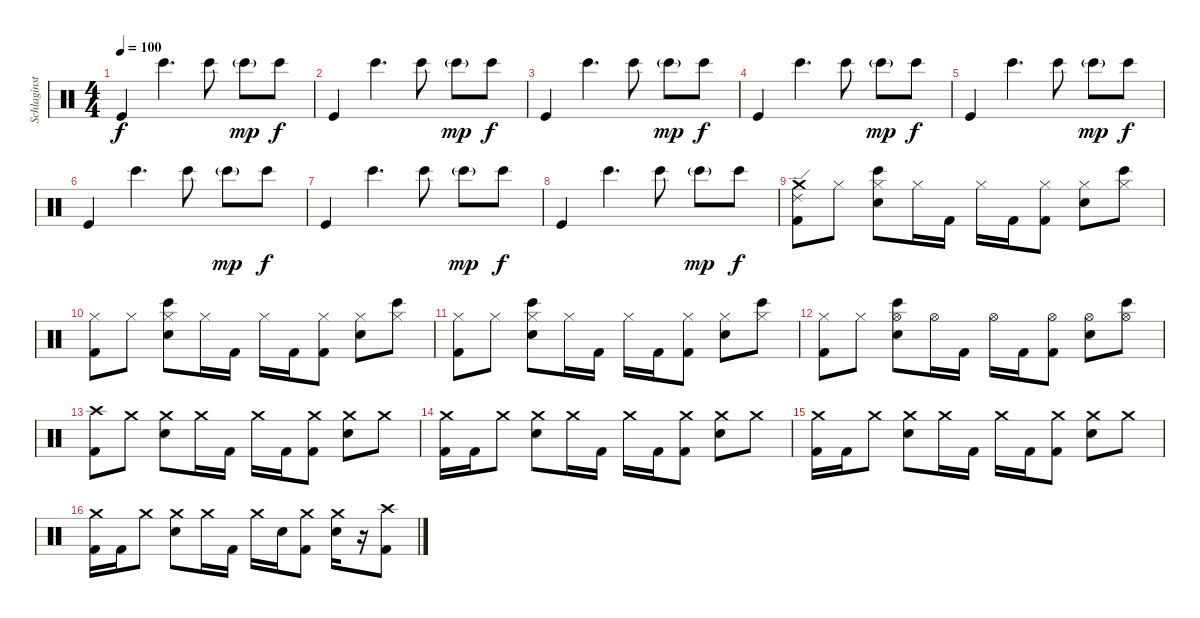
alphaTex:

\track ("Schlaginstrumente - Auswahl" "Schlaginst") {instrument percussion}
\staff {score}
\articulation defaults
\ts (4 4)
\tempo 100
\clef neutral
\ks c "Kick (hit)".4{dy f} "Bongo High (hit)".4{d} "Bongo High (hit)".8 "Bongo High (hit)"{g}.8{dy mp} "Bongo High (hit)".8{dy f}
|
"Kick (hit)".4 "Bongo High (hit)".4{d} "Bongo High (hit)".8 "Bongo High (hit)"{g}.8{dy mp} "Bongo High (hit)".8{dy f} |
"Kick (hit)".4 "Bongo High (hit)".4{d} "Bongo High (hit)".8 "Bongo High (hit)"{g}.8{dy mp} "Bongo High (hit)".8{dy f} |
"Kick (hit)".4 "Bongo High (hit)".4{d} "Bongo High (hit)".8 "Bongo High (hit)"{g}.8{dy mp} "Bongo High (hit)".8{dy f} |
"Kick (hit)".4 "Bongo High (hit)".4{d} "Bongo High (hit)".8 "Bongo High (hit)"{g}.8{dy mp} "Bongo High (hit)".8{dy f} |
"Kick (hit)".4 "Bongo High (hit)".4{d} "Bongo High (hit)".8 "Bongo High (hit)"{g}.8{dy mp} "Bongo High (hit)".8{dy f} |
"Kick (hit)".4 "Bongo High (hit)".4{d} "Bongo High (hit)".8 "Bongo High (hit)"{g}.8{dy mp} "Bongo High (hit)".8{dy f} |
"Kick (hit)".4 "Bongo High (hit)".4{d} "Bongo High (hit)".8 "Bongo High (hit)"{g}.8{dy mp} "Bongo High (hit)".8{dy f} |
("Crash medium (hit)" "Ride (edge) 2" "Kick (hit) 2").8 "Hi-Hat (closed)".8 ("Hi-Hat (closed)" "Bongo High (hit)" "Snare (hit) 2").8 "Hi-Hat (closed)".16 "Kick (hit) 2".16 "Hi-Hat (closed)".16 "Kick (hit) 2".16 ("Hi-Hat (closed)" "Kick (hit) 2").8 ("Hi-Hat (closed)" "Snare (hit) 2").8 ("Hi-Hat (closed)" "Bongo High (hit)").8 |
("Hi-Hat (closed)" "Kick (hit) 2").8 "Hi-Hat (closed)".8 ("Hi-Hat (closed)" "Bongo High (hit)" "Snare (hit) 2").8 "Hi-Hat (closed)".16 "Kick (hit) 2".16 "Hi-Hat (closed)".16 "Kick (hit) 2".16 ("Hi-Hat (closed)" "Kick (hit) 2").8 ("Hi-Hat (closed)" "Snare (hit) 2").8 ("Hi-Hat (closed)" "Bongo High (hit)").8 |
("Hi-Hat (closed)" "Kick (hit) 2").8 "Hi-Hat (closed)".8 ("Hi-Hat (closed)" "Bongo High (hit)" "Snare (hit) 2").8 "Hi-Hat (closed)".16 "Kick (hit) 2".16 "Hi-Hat (closed)".16 "Kick (hit) 2".16 ("Hi-Hat (closed)" "Kick (hit) 2").8 ("Hi-Hat (closed)" "Snare (hit) 2").8 ("Hi-Hat (closed)" "Bongo High (hit)").8 |
("Hi-Hat (closed)" "Kick (hit) 2").8 "Hi-Hat (closed)".8 ("Hi-Hat (open)" "Bongo High (hit)" "Snare (hit) 2").8 "Hi-Hat (open)".16 "Kick (hit) 2".16 "Hi-Hat (open)".16 "Kick (hit) 2".16 ("Hi-Hat (open)" "Kick (hit) 2").8 ("Hi-Hat (open)" "Snare (hit) 2").8 ("Hi-Hat (open)" "Bongo High (hit)").8 |
("Crash high (hit)" "Kick (hit) 2").8 "Crash medium (hit)".8 ("Crash medium (hit)" "Snare (hit) 2").8 "Crash medium (hit)".16 "Kick (hit) 2".16 "Crash medium (hit)".16 "Kick (hit) 2".16 ("Crash medium (hit)" "Kick (hit) 2").8 ("Crash medium (hit)" "Snare (hit) 2").8 "Crash medium (hit)".8 |
("Crash medium (hit)" "Kick (hit) 2").16 "Kick (hit) 2".16 "Crash medium (hit)".8 ("Crash medium (hit)" "Snare (hit) 2").8 "Crash medium (hit)".16 "Kick (hit) 2".16 "Crash medium (hit)".16 "Kick (hit) 2".16 ("Crash medium (hit)" "Kick (hit) 2").8 ("Crash medium (hit)" "Snare (hit) 2").8 "Crash medium (hit)".8 |
("Crash medium (hit)" "Kick (hit) 2").16 "Kick (hit) 2".16 "Crash medium (hit)".8 ("Crash medium (hit)" "Snare (hit) 2").8 "Crash medium (hit)".16 "Kick (hit) 2".16 "Crash medium (hit)".16 "Kick (hit) 2".16 ("Crash medium (hit)" "Kick (hit) 2").8 ("Crash medium (hit)" "Snare (hit) 2").8 "Crash medium (hit)".8 |
("Crash medium (hit)" "Kick (hit) 2").16 "Kick (hit) 2".16 "Crash medium (hit)".8 ("Crash medium (hit)" "Snare (hit) 2").8 "Crash medium (hit)".16 "Kick (hit) 2".16 "Crash medium (hit)".16 "Snare (hit) 2".16 ("Crash medium (hit)" "Kick (hit) 2").8 ("Crash medium (hit)" "Snare (hit) 2").16 r.16 ("Crash high (hit)" "Kick (hit) 2").8
